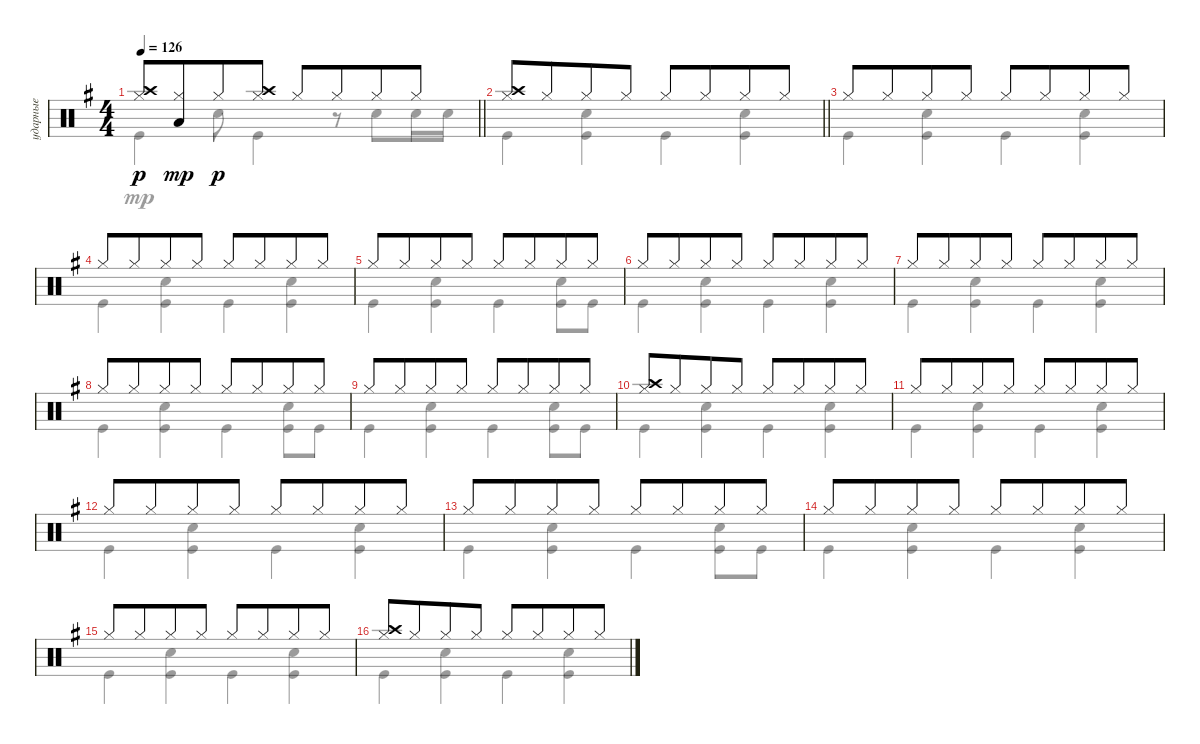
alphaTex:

\track ("ударные" "ударные") {instrument percussion}
\staff {score}
\articulation defaults
\voice
\ts (4 4)
\tempo 126
\clef neutral
\barLineRight lightlight
\ks eminor
("Hi-Hat (closed)" "Crash high (hit)").8{dy p} ("Hi-Hat (closed)" "Low Tom (hit)").8{dy mp beam merge} "Hi-Hat (closed)".8{dy p} ("Hi-Hat (closed)" "Crash high (hit)").8 "Hi-Hat (closed)".8 "Hi-Hat (closed)".8{beam merge} "Hi-Hat (closed)".8 "Hi-Hat (closed)".8 |
\section ("" "")
\barLineRight lightlight
("Hi-Hat (closed)" "Crash high (hit)").8 "Hi-Hat (closed)".8{beam merge} "Hi-Hat (closed)".8 "Hi-Hat (closed)".8 "Hi-Hat (closed)".8 "Hi-Hat (closed)".8{beam merge} "Hi-Hat (closed)".8 "Hi-Hat (closed)".8 |
\section ("" "")
"Hi-Hat (closed)".8 "Hi-Hat (closed)".8{beam merge} "Hi-Hat (closed)".8 "Hi-Hat (closed)".8 "Hi-Hat (closed)".8 "Hi-Hat (closed)".8{beam merge} "Hi-Hat (closed)".8 "Hi-Hat (closed)".8 |
"Hi-Hat (closed)".8 "Hi-Hat (closed)".8{beam merge} "Hi-Hat (closed)".8 "Hi-Hat (closed)".8 "Hi-Hat (closed)".8 "Hi-Hat (closed)".8{beam merge} "Hi-Hat (closed)".8 "Hi-Hat (closed)".8 |
"Hi-Hat (closed)".8 "Hi-Hat (closed)".8{beam merge} "Hi-Hat (closed)".8 "Hi-Hat (closed)".8 "Hi-Hat (closed)".8 "Hi-Hat (closed)".8{beam merge} "Hi-Hat (closed)".8 "Hi-Hat (closed)".8 |
"Hi-Hat (closed)".8 "Hi-Hat (closed)".8{beam merge} "Hi-Hat (closed)".8 "Hi-Hat (closed)".8 "Hi-Hat (closed)".8 "Hi-Hat (closed)".8{beam merge} "Hi-Hat (closed)".8 "Hi-Hat (closed)".8 |
"Hi-Hat (closed)".8 "Hi-Hat (closed)".8{beam merge} "Hi-Hat (closed)".8 "Hi-Hat (closed)".8 "Hi-Hat (closed)".8 "Hi-Hat (closed)".8{beam merge} "Hi-Hat (closed)".8 "Hi-Hat (closed)".8 |
"Hi-Hat (closed)".8 "Hi-Hat (closed)".8{beam merge} "Hi-Hat (closed)".8 "Hi-Hat (closed)".8 "Hi-Hat (closed)".8 "Hi-Hat (closed)".8{beam merge} "Hi-Hat (closed)".8 "Hi-Hat (closed)".8 |
"Hi-Hat (closed)".8 "Hi-Hat (closed)".8{beam merge} "Hi-Hat (closed)".8 "Hi-Hat (closed)".8 "Hi-Hat (closed)".8 "Hi-Hat (closed)".8{beam merge} "Hi-Hat (closed)".8 "Hi-Hat (closed)".8 |
("Hi-Hat (closed)" "Crash high (hit)").8 "Hi-Hat (closed)".8{beam merge} "Hi-Hat (closed)".8 "Hi-Hat (closed)".8 "Hi-Hat (closed)".8 "Hi-Hat (closed)".8{beam merge} "Hi-Hat (closed)".8 "Hi-Hat (closed)".8 |
"Hi-Hat (closed)".8 "Hi-Hat (closed)".8{beam merge} "Hi-Hat (closed)".8 "Hi-Hat (closed)".8 "Hi-Hat (closed)".8 "Hi-Hat (closed)".8{beam merge} "Hi-Hat (closed)".8 "Hi-Hat (closed)".8 |
"Hi-Hat (closed)".8 "Hi-Hat (closed)".8{beam merge} "Hi-Hat (closed)".8 "Hi-Hat (closed)".8 "Hi-Hat (closed)".8 "Hi-Hat (closed)".8{beam merge} "Hi-Hat (closed)".8 "Hi-Hat (closed)".8 |
"Hi-Hat (closed)".8 "Hi-Hat (closed)".8{beam merge} "Hi-Hat (closed)".8 "Hi-Hat (closed)".8 "Hi-Hat (closed)".8 "Hi-Hat (closed)".8{beam merge} "Hi-Hat (closed)".8 "Hi-Hat (closed)".8 |
"Hi-Hat (closed)".8 "Hi-Hat (closed)".8{beam merge} "Hi-Hat (closed)".8 "Hi-Hat (closed)".8 "Hi-Hat (closed)".8 "Hi-Hat (closed)".8{beam merge} "Hi-Hat (closed)".8 "Hi-Hat (closed)".8 |
"Hi-Hat (closed)".8 "Hi-Hat (closed)".8{beam merge} "Hi-Hat (closed)".8 "Hi-Hat (closed)".8 "Hi-Hat (closed)".8 "Hi-Hat (closed)".8{beam merge} "Hi-Hat (closed)".8 "Hi-Hat (closed)".8 |
("Hi-Hat (closed)" "Crash high (hit)").8 "Hi-Hat (closed)".8{beam merge} "Hi-Hat (closed)".8 "Hi-Hat (closed)".8 "Hi-Hat (closed)".8 "Hi-Hat (closed)".8{beam merge} "Hi-Hat (closed)".8 "Hi-Hat (closed)".8
\voice
\clef neutral
\ottava regular
\simile none
\barLineRight lightlight
\ks eminor "Kick (hit)".4{dy mp} "Snare (hit) 2".8 "Kick (hit)".4
r.8 "Snare (hit) 2".8 "Snare (hit) 2".16 "Snare (hit) 2".16 |
\barLineRight lightlight "Kick (hit)".4
("Snare (hit) 2" "Kick (hit)").4 "Kick (hit)".4 ("Snare (hit) 2" "Kick (hit)").4 |
"Kick (hit)".4 ("Snare (hit) 2" "Kick (hit)").4 "Kick (hit)".4 ("Snare (hit) 2" "Kick (hit)").4 |
"Kick (hit)".4 ("Snare (hit) 2" "Kick (hit)").4 "Kick (hit)".4 ("Snare (hit) 2" "Kick (hit)").4 |
"Kick (hit)".4 ("Snare (hit) 2" "Kick (hit)").4 "Kick (hit)".4 ("Snare (hit) 2" "Kick (hit)").8 "Kick (hit)".8 |
"Kick (hit)".4 ("Snare (hit) 2" "Kick (hit)").4 "Kick (hit)".4 ("Snare (hit) 2" "Kick (hit)").4 |
"Kick (hit)".4 ("Snare (hit) 2" "Kick (hit)").4 "Kick (hit)".4 ("Snare (hit) 2" "Kick (hit)").4 |
"Kick (hit)".4 ("Snare (hit) 2" "Kick (hit)").4 "Kick (hit)".4 ("Snare (hit) 2" "Kick (hit)").8 "Kick (hit)".8 |
"Kick (hit)".4 ("Snare (hit) 2" "Kick (hit)").4 "Kick (hit)".4 ("Snare (hit) 2" "Kick (hit)").8 "Kick (hit)".8 |
"Kick (hit)".4 ("Snare (hit) 2" "Kick (hit)").4 "Kick (hit)".4 ("Snare (hit) 2" "Kick (hit)").4 |
"Kick (hit)".4 ("Snare (hit) 2" "Kick (hit)").4 "Kick (hit)".4 ("Snare (hit) 2" "Kick (hit)").4 |
"Kick (hit)".4 ("Snare (hit) 2" "Kick (hit)").4 "Kick (hit)".4 ("Snare (hit) 2" "Kick (hit)").4 |
"Kick (hit)".4 ("Snare (hit) 2" "Kick (hit)").4 "Kick (hit)".4 ("Snare (hit) 2" "Kick (hit)").8 "Kick (hit)".8 |
"Kick (hit)".4 ("Snare (hit) 2" "Kick (hit)").4 "Kick (hit)".4 ("Snare (hit) 2" "Kick (hit)").4 |
"Kick (hit)".4 ("Snare (hit) 2" "Kick (hit)").4 "Kick (hit)".4 ("Snare (hit) 2" "Kick (hit)").4 |
"Kick (hit)".4 ("Snare (hit) 2" "Kick (hit)").4 "Kick (hit)".4 ("Snare (hit) 2" "Kick (hit)").4
